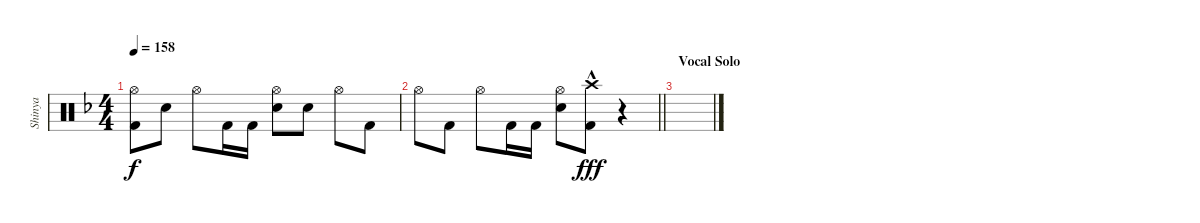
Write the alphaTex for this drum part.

\track ("Shinya" "Shinya") {instrument percussion}
\staff {score}
\articulation defaults
\ts (4 4)
\tempo 158
\clef neutral
\ks f
("Hi-Hat (open)" "Kick (hit) 2").8{dy f} "Snare (hit) 2".8 "Hi-Hat (open)".8 "Kick (hit) 2".16 "Kick (hit) 2".16 ("Hi-Hat (open)" "Snare (hit) 2").8 "Snare (hit) 2".8 "Hi-Hat (open)".8 "Kick (hit) 2".8 |
\barLineRight lightlight "Hi-Hat (open)".8 "Kick (hit) 2".8 "Hi-Hat (open)".8 "Kick (hit) 2".16 "Kick (hit) 2".16
("Hi-Hat (open)" "Snare (hit) 2").8 ("Crash high (hit)"{hac} "Kick (hit) 2").8{dy fff} r.4 |
\section ("" "Vocal Solo")
